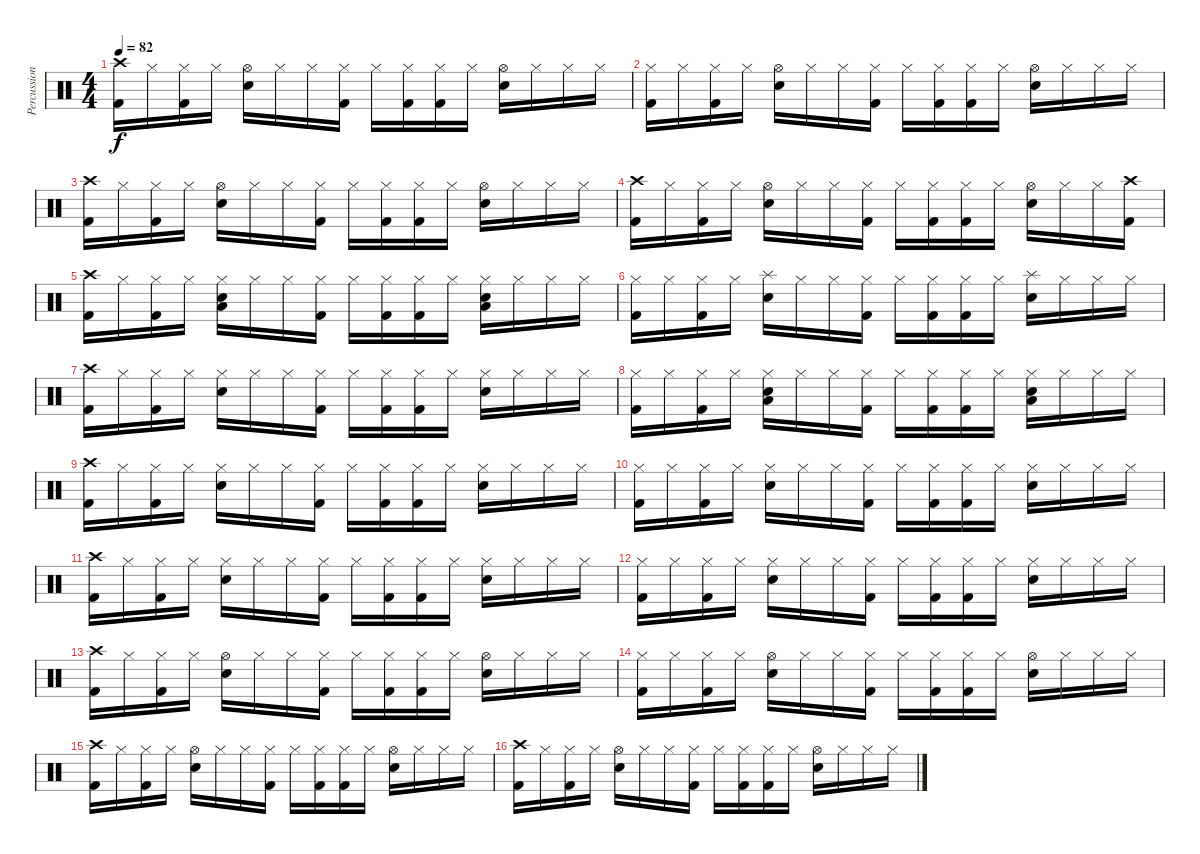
\track ("Percussion" "Percussion") {instrument percussion}
\staff {score}
\articulation defaults
\ts (4 4)
\tempo 82
\clef neutral
\ks c
("Crash high (hit)" "Kick (hit) 2").16{dy f} "Hi-Hat (closed)".16 ("Hi-Hat (closed)" "Kick (hit) 2").16 "Hi-Hat (closed)".16 ("Hi-Hat (open)" "Snare (hit) 2").16 "Hi-Hat (closed)".16 "Hi-Hat (closed)".16 ("Hi-Hat (closed)" "Kick (hit) 2").16 "Hi-Hat (closed)".16 ("Hi-Hat (closed)" "Kick (hit) 2").16 ("Hi-Hat (closed)" "Kick (hit) 2").16 "Hi-Hat (closed)".16 ("Hi-Hat (open)" "Snare (hit) 2").16 "Hi-Hat (closed)".16 "Hi-Hat (closed)".16 "Hi-Hat (closed)".16 |
("Hi-Hat (closed)" "Kick (hit) 2").16 "Hi-Hat (closed)".16 ("Hi-Hat (closed)" "Kick (hit) 2").16 "Hi-Hat (closed)".16 ("Hi-Hat (open)" "Snare (hit) 2").16 "Hi-Hat (closed)".16 "Hi-Hat (closed)".16 ("Hi-Hat (closed)" "Kick (hit) 2").16 "Hi-Hat (closed)".16 ("Hi-Hat (closed)" "Kick (hit) 2").16 ("Hi-Hat (closed)" "Kick (hit) 2").16 "Hi-Hat (closed)".16 ("Hi-Hat (open)" "Snare (hit) 2").16 "Hi-Hat (closed)".16 "Hi-Hat (closed)".16 "Hi-Hat (closed)".16 |
("Crash high (hit)" "Kick (hit) 2").16 "Hi-Hat (closed)".16 ("Hi-Hat (closed)" "Kick (hit) 2").16 "Hi-Hat (closed)".16 ("Hi-Hat (open)" "Snare (hit) 2").16 "Hi-Hat (closed)".16 "Hi-Hat (closed)".16 ("Hi-Hat (closed)" "Kick (hit) 2").16 "Hi-Hat (closed)".16 ("Hi-Hat (closed)" "Kick (hit) 2").16 ("Hi-Hat (closed)" "Kick (hit) 2").16 "Hi-Hat (closed)".16 ("Hi-Hat (open)" "Snare (hit) 2").16 "Hi-Hat (closed)".16 "Hi-Hat (closed)".16 "Hi-Hat (closed)".16 |
("Crash high (hit)" "Kick (hit) 2").16 "Hi-Hat (closed)".16 ("Hi-Hat (closed)" "Kick (hit) 2").16 "Hi-Hat (closed)".16 ("Hi-Hat (open)" "Snare (hit) 2").16 "Hi-Hat (closed)".16 "Hi-Hat (closed)".16 ("Hi-Hat (closed)" "Kick (hit) 2").16 "Hi-Hat (closed)".16 ("Hi-Hat (closed)" "Kick (hit) 2").16 ("Hi-Hat (closed)" "Kick (hit) 2").16 "Hi-Hat (closed)".16 ("Hi-Hat (open)" "Snare (hit) 2").16 "Hi-Hat (closed)".16 "Hi-Hat (closed)".16 ("Crash high (hit)" "Kick (hit) 2").16 |
("Crash high (hit)" "Kick (hit) 2").16 "Hi-Hat (closed)".16 ("Hi-Hat (closed)" "Kick (hit) 2").16 "Hi-Hat (closed)".16 ("Hi-Hat (closed)" "Snare (hit) 2" "Low Tom (hit)").16 "Hi-Hat (closed)".16 "Hi-Hat (closed)".16 ("Hi-Hat (closed)" "Kick (hit) 2").16 "Hi-Hat (closed)".16 ("Hi-Hat (closed)" "Kick (hit) 2").16 ("Hi-Hat (closed)" "Kick (hit) 2").16 "Hi-Hat (closed)".16 ("Hi-Hat (closed)" "Snare (hit) 2" "Low Tom (hit)").16 "Hi-Hat (closed)".16 "Hi-Hat (closed)".16 "Hi-Hat (closed)".16 |
("Hi-Hat (closed)" "Kick (hit) 2").16 "Hi-Hat (closed)".16 ("Hi-Hat (closed)" "Kick (hit) 2").16 "Hi-Hat (closed)".16 ("Splash (hit)" "Snare (hit) 2").16 "Hi-Hat (closed)".16 "Hi-Hat (closed)".16 ("Hi-Hat (closed)" "Kick (hit) 2").16 "Hi-Hat (closed)".16 ("Hi-Hat (closed)" "Kick (hit) 2").16 ("Hi-Hat (closed)" "Kick (hit) 2").16 "Hi-Hat (closed)".16 ("Splash (hit)" "Snare (hit) 2").16 "Hi-Hat (closed)".16 "Hi-Hat (closed)".16 "Hi-Hat (closed)".16 |
("Crash high (hit)" "Kick (hit) 2").16 "Hi-Hat (closed)".16 ("Hi-Hat (closed)" "Kick (hit) 2").16 "Hi-Hat (closed)".16 ("Hi-Hat (closed)" "Snare (hit) 2").16 "Hi-Hat (closed)".16 "Hi-Hat (closed)".16 ("Hi-Hat (closed)" "Kick (hit) 2").16 "Hi-Hat (closed)".16 ("Hi-Hat (closed)" "Kick (hit) 2").16 ("Hi-Hat (closed)" "Kick (hit) 2").16 "Hi-Hat (closed)".16 ("Hi-Hat (closed)" "Snare (hit) 2").16 "Hi-Hat (closed)".16 "Hi-Hat (closed)".16 "Hi-Hat (closed)".16 |
("Hi-Hat (closed)" "Kick (hit) 2").16 "Hi-Hat (closed)".16 ("Hi-Hat (closed)" "Kick (hit) 2").16 "Hi-Hat (closed)".16 ("Hi-Hat (closed)" "Snare (hit) 2" "Low Tom (hit)").16 "Hi-Hat (closed)".16 "Hi-Hat (closed)".16 ("Hi-Hat (closed)" "Kick (hit) 2").16 "Hi-Hat (closed)".16 ("Hi-Hat (closed)" "Kick (hit) 2").16 ("Hi-Hat (closed)" "Kick (hit) 2").16 "Hi-Hat (closed)".16 ("Hi-Hat (closed)" "Snare (hit) 2" "Low Floor Tom (hit)").16 "Hi-Hat (closed)".16 "Hi-Hat (closed)".16 "Hi-Hat (closed)".16 |
("Crash high (hit)" "Kick (hit) 2").16 "Hi-Hat (closed)".16 ("Hi-Hat (closed)" "Kick (hit) 2").16 "Hi-Hat (closed)".16 ("Hi-Hat (closed)" "Snare (hit) 2").16 "Hi-Hat (closed)".16 "Hi-Hat (closed)".16 ("Hi-Hat (closed)" "Kick (hit) 2").16 "Hi-Hat (closed)".16 ("Hi-Hat (closed)" "Kick (hit) 2").16 ("Hi-Hat (closed)" "Kick (hit) 2").16 "Hi-Hat (closed)".16 ("Hi-Hat (closed)" "Snare (hit) 2").16 "Hi-Hat (closed)".16 "Hi-Hat (closed)".16 "Hi-Hat (closed)".16 |
("Hi-Hat (closed)" "Kick (hit) 2").16 "Hi-Hat (closed)".16 ("Hi-Hat (closed)" "Kick (hit) 2").16 "Hi-Hat (closed)".16 ("Hi-Hat (closed)" "Snare (hit) 2").16 "Hi-Hat (closed)".16 "Hi-Hat (closed)".16 ("Hi-Hat (closed)" "Kick (hit) 2").16 "Hi-Hat (closed)".16 ("Hi-Hat (closed)" "Kick (hit) 2").16 ("Hi-Hat (closed)" "Kick (hit) 2").16 "Hi-Hat (closed)".16 ("Hi-Hat (closed)" "Snare (hit) 2").16 "Hi-Hat (closed)".16 "Hi-Hat (closed)".16 "Hi-Hat (closed)".16 |
("Crash high (hit)" "Kick (hit) 2").16 "Hi-Hat (closed)".16 ("Hi-Hat (closed)" "Kick (hit) 2").16 "Hi-Hat (closed)".16 ("Hi-Hat (closed)" "Snare (hit) 2").16 "Hi-Hat (closed)".16 "Hi-Hat (closed)".16 ("Hi-Hat (closed)" "Kick (hit) 2").16 "Hi-Hat (closed)".16 ("Hi-Hat (closed)" "Kick (hit) 2").16 ("Hi-Hat (closed)" "Kick (hit) 2").16 "Hi-Hat (closed)".16 ("Hi-Hat (closed)" "Snare (hit) 2").16 "Hi-Hat (closed)".16 "Hi-Hat (closed)".16 "Hi-Hat (closed)".16 |
("Hi-Hat (closed)" "Kick (hit) 2").16 "Hi-Hat (closed)".16 ("Hi-Hat (closed)" "Kick (hit) 2").16 "Hi-Hat (closed)".16 ("Hi-Hat (closed)" "Snare (hit) 2").16 "Hi-Hat (closed)".16 "Hi-Hat (closed)".16 ("Hi-Hat (closed)" "Kick (hit) 2").16 "Hi-Hat (closed)".16 ("Hi-Hat (closed)" "Kick (hit) 2").16 ("Hi-Hat (closed)" "Kick (hit) 2").16 "Hi-Hat (closed)".16 ("Hi-Hat (closed)" "Snare (hit) 2").16 "Hi-Hat (closed)".16 "Hi-Hat (closed)".16 "Hi-Hat (closed)".16 |
("Crash high (hit)" "Kick (hit) 2").16 "Hi-Hat (closed)".16 ("Hi-Hat (closed)" "Kick (hit) 2").16 "Hi-Hat (closed)".16 ("Hi-Hat (open)" "Snare (hit) 2").16 "Hi-Hat (closed)".16 "Hi-Hat (closed)".16 ("Hi-Hat (closed)" "Kick (hit) 2").16 "Hi-Hat (closed)".16 ("Hi-Hat (closed)" "Kick (hit) 2").16 ("Hi-Hat (closed)" "Kick (hit) 2").16 "Hi-Hat (closed)".16 ("Hi-Hat (open)" "Snare (hit) 2").16 "Hi-Hat (closed)".16 "Hi-Hat (closed)".16 "Hi-Hat (closed)".16 |
("Hi-Hat (closed)" "Kick (hit) 2").16 "Hi-Hat (closed)".16 ("Hi-Hat (closed)" "Kick (hit) 2").16 "Hi-Hat (closed)".16 ("Hi-Hat (open)" "Snare (hit) 2").16 "Hi-Hat (closed)".16 "Hi-Hat (closed)".16 ("Hi-Hat (closed)" "Kick (hit) 2").16 "Hi-Hat (closed)".16 ("Hi-Hat (closed)" "Kick (hit) 2").16 ("Hi-Hat (closed)" "Kick (hit) 2").16 "Hi-Hat (closed)".16 ("Hi-Hat (open)" "Snare (hit) 2").16 "Hi-Hat (closed)".16 "Hi-Hat (closed)".16 "Hi-Hat (closed)".16 |
("Crash high (hit)" "Kick (hit) 2").16 "Hi-Hat (closed)".16 ("Hi-Hat (closed)" "Kick (hit) 2").16 "Hi-Hat (closed)".16 ("Hi-Hat (open)" "Snare (hit) 2").16 "Hi-Hat (closed)".16 "Hi-Hat (closed)".16 ("Hi-Hat (closed)" "Kick (hit) 2").16 "Hi-Hat (closed)".16 ("Hi-Hat (closed)" "Kick (hit) 2").16 ("Hi-Hat (closed)" "Kick (hit) 2").16 "Hi-Hat (closed)".16 ("Hi-Hat (open)" "Snare (hit) 2").16 "Hi-Hat (closed)".16 "Hi-Hat (closed)".16 "Hi-Hat (closed)".16 |
("Crash high (hit)" "Kick (hit) 2").16 "Hi-Hat (closed)".16 ("Hi-Hat (closed)" "Kick (hit) 2").16 "Hi-Hat (closed)".16 ("Hi-Hat (open)" "Snare (hit) 2").16 "Hi-Hat (closed)".16 "Hi-Hat (closed)".16 ("Hi-Hat (closed)" "Kick (hit) 2").16 "Hi-Hat (closed)".16 ("Hi-Hat (closed)" "Kick (hit) 2").16 ("Hi-Hat (closed)" "Kick (hit) 2").16 "Hi-Hat (closed)".16 ("Hi-Hat (open)" "Snare (hit) 2").16 "Hi-Hat (closed)".16 "Hi-Hat (closed)".16 "Hi-Hat (closed)".16
